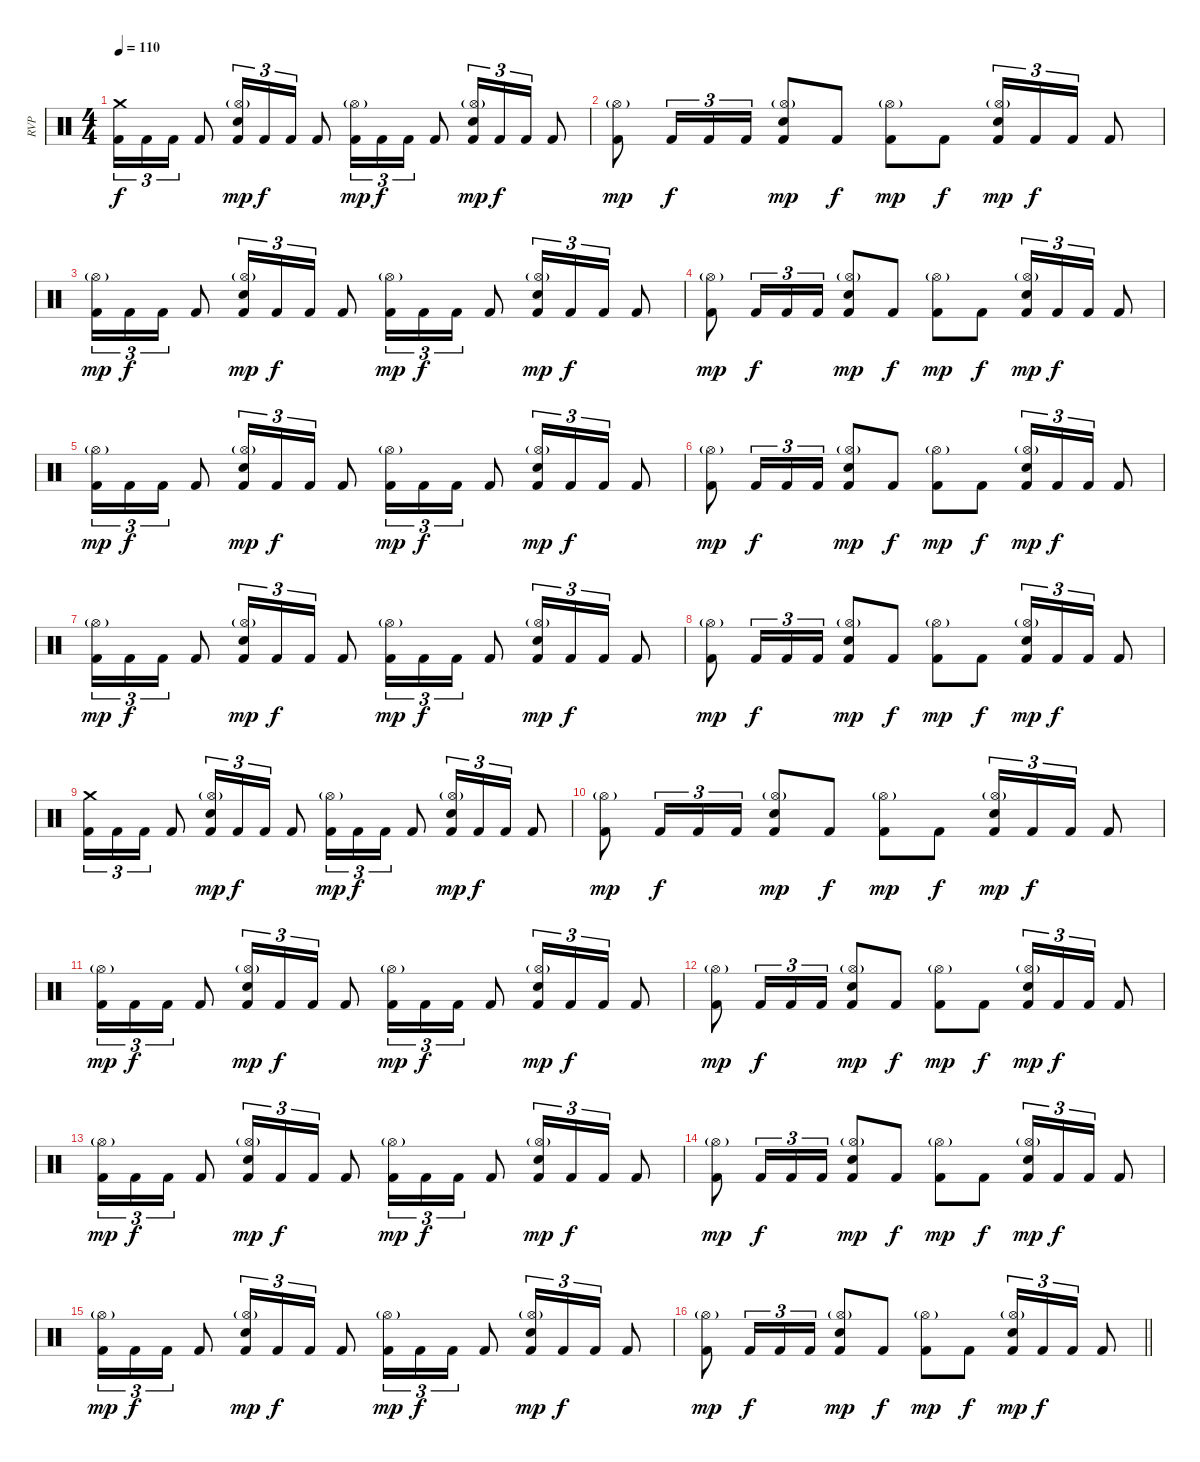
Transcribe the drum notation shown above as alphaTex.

\track ("RVP" "RVP") {instrument percussion}
\staff {score}
\articulation defaults
\ts (4 4)
\tempo 110
\clef neutral
\ks c
("Crash medium (hit)" "Kick (hit) 2").16{tu (3 2) dy f} "Kick (hit) 2".16{tu (3 2)} "Kick (hit) 2".16{tu (3 2)} "Kick (hit) 2".8 ("Hi-Hat (open)"{g} "Electric Snare (hit)" "Kick (hit) 2").16{tu (3 2) dy mp} "Kick (hit) 2".16{tu (3 2) dy f} "Kick (hit) 2".16{tu (3 2)} "Kick (hit) 2".8 ("Hi-Hat (open)"{g} "Kick (hit) 2").16{tu (3 2) dy mp} "Kick (hit) 2".16{tu (3 2) dy f} "Kick (hit) 2".16{tu (3 2)} "Kick (hit) 2".8 ("Hi-Hat (open)"{g} "Electric Snare (hit)" "Kick (hit) 2").16{tu (3 2) dy mp} "Kick (hit) 2".16{tu (3 2) dy f} "Kick (hit) 2".16{tu (3 2)} "Kick (hit) 2".8 |
("Hi-Hat (open)"{g} "Kick (hit) 2").8{dy mp} "Kick (hit) 2".16{tu (3 2) dy f} "Kick (hit) 2".16{tu (3 2)} "Kick (hit) 2".16{tu (3 2)} ("Hi-Hat (open)"{g} "Electric Snare (hit)" "Kick (hit) 2").8{dy mp} "Kick (hit) 2".8{dy f} ("Hi-Hat (open)"{g} "Kick (hit) 2").8{dy mp} "Kick (hit) 2".8{dy f} ("Hi-Hat (open)"{g} "Electric Snare (hit)" "Kick (hit) 2").16{tu (3 2) dy mp} "Kick (hit) 2".16{tu (3 2) dy f} "Kick (hit) 2".16{tu (3 2)} "Kick (hit) 2".8 |
("Hi-Hat (open)"{g} "Kick (hit) 2").16{tu (3 2) dy mp} "Kick (hit) 2".16{tu (3 2) dy f} "Kick (hit) 2".16{tu (3 2)} "Kick (hit) 2".8 ("Hi-Hat (open)"{g} "Electric Snare (hit)" "Kick (hit) 2").16{tu (3 2) dy mp} "Kick (hit) 2".16{tu (3 2) dy f} "Kick (hit) 2".16{tu (3 2)} "Kick (hit) 2".8 ("Hi-Hat (open)"{g} "Kick (hit) 2").16{tu (3 2) dy mp} "Kick (hit) 2".16{tu (3 2) dy f} "Kick (hit) 2".16{tu (3 2)} "Kick (hit) 2".8 ("Hi-Hat (open)"{g} "Electric Snare (hit)" "Kick (hit) 2").16{tu (3 2) dy mp} "Kick (hit) 2".16{tu (3 2) dy f} "Kick (hit) 2".16{tu (3 2)} "Kick (hit) 2".8 |
("Hi-Hat (open)"{g} "Kick (hit) 2").8{dy mp} "Kick (hit) 2".16{tu (3 2) dy f} "Kick (hit) 2".16{tu (3 2)} "Kick (hit) 2".16{tu (3 2)} ("Hi-Hat (open)"{g} "Electric Snare (hit)" "Kick (hit) 2").8{dy mp} "Kick (hit) 2".8{dy f} ("Hi-Hat (open)"{g} "Kick (hit) 2").8{dy mp} "Kick (hit) 2".8{dy f} ("Hi-Hat (open)"{g} "Electric Snare (hit)" "Kick (hit) 2").16{tu (3 2) dy mp} "Kick (hit) 2".16{tu (3 2) dy f} "Kick (hit) 2".16{tu (3 2)} "Kick (hit) 2".8 |
("Hi-Hat (open)"{g} "Kick (hit) 2").16{tu (3 2) dy mp} "Kick (hit) 2".16{tu (3 2) dy f} "Kick (hit) 2".16{tu (3 2)} "Kick (hit) 2".8 ("Hi-Hat (open)"{g} "Electric Snare (hit)" "Kick (hit) 2").16{tu (3 2) dy mp} "Kick (hit) 2".16{tu (3 2) dy f} "Kick (hit) 2".16{tu (3 2)} "Kick (hit) 2".8 ("Hi-Hat (open)"{g} "Kick (hit) 2").16{tu (3 2) dy mp} "Kick (hit) 2".16{tu (3 2) dy f} "Kick (hit) 2".16{tu (3 2)} "Kick (hit) 2".8 ("Hi-Hat (open)"{g} "Electric Snare (hit)" "Kick (hit) 2").16{tu (3 2) dy mp} "Kick (hit) 2".16{tu (3 2) dy f} "Kick (hit) 2".16{tu (3 2)} "Kick (hit) 2".8 |
("Hi-Hat (open)"{g} "Kick (hit) 2").8{dy mp} "Kick (hit) 2".16{tu (3 2) dy f} "Kick (hit) 2".16{tu (3 2)} "Kick (hit) 2".16{tu (3 2)} ("Hi-Hat (open)"{g} "Electric Snare (hit)" "Kick (hit) 2").8{dy mp} "Kick (hit) 2".8{dy f} ("Hi-Hat (open)"{g} "Kick (hit) 2").8{dy mp} "Kick (hit) 2".8{dy f} ("Hi-Hat (open)"{g} "Electric Snare (hit)" "Kick (hit) 2").16{tu (3 2) dy mp} "Kick (hit) 2".16{tu (3 2) dy f} "Kick (hit) 2".16{tu (3 2)} "Kick (hit) 2".8 |
("Hi-Hat (open)"{g} "Kick (hit) 2").16{tu (3 2) dy mp} "Kick (hit) 2".16{tu (3 2) dy f} "Kick (hit) 2".16{tu (3 2)} "Kick (hit) 2".8 ("Hi-Hat (open)"{g} "Electric Snare (hit)" "Kick (hit) 2").16{tu (3 2) dy mp} "Kick (hit) 2".16{tu (3 2) dy f} "Kick (hit) 2".16{tu (3 2)} "Kick (hit) 2".8 ("Hi-Hat (open)"{g} "Kick (hit) 2").16{tu (3 2) dy mp} "Kick (hit) 2".16{tu (3 2) dy f} "Kick (hit) 2".16{tu (3 2)} "Kick (hit) 2".8 ("Hi-Hat (open)"{g} "Electric Snare (hit)" "Kick (hit) 2").16{tu (3 2) dy mp} "Kick (hit) 2".16{tu (3 2) dy f} "Kick (hit) 2".16{tu (3 2)} "Kick (hit) 2".8 |
("Hi-Hat (open)"{g} "Kick (hit) 2").8{dy mp} "Kick (hit) 2".16{tu (3 2) dy f} "Kick (hit) 2".16{tu (3 2)} "Kick (hit) 2".16{tu (3 2)} ("Hi-Hat (open)"{g} "Electric Snare (hit)" "Kick (hit) 2").8{dy mp} "Kick (hit) 2".8{dy f} ("Hi-Hat (open)"{g} "Kick (hit) 2").8{dy mp} "Kick (hit) 2".8{dy f} ("Hi-Hat (open)"{g} "Electric Snare (hit)" "Kick (hit) 2").16{tu (3 2) dy mp} "Kick (hit) 2".16{tu (3 2) dy f} "Kick (hit) 2".16{tu (3 2)} "Kick (hit) 2".8 |
("Crash medium (hit)" "Kick (hit) 2").16{tu (3 2)} "Kick (hit) 2".16{tu (3 2)} "Kick (hit) 2".16{tu (3 2)} "Kick (hit) 2".8 ("Hi-Hat (open)"{g} "Electric Snare (hit)" "Kick (hit) 2").16{tu (3 2) dy mp} "Kick (hit) 2".16{tu (3 2) dy f} "Kick (hit) 2".16{tu (3 2)} "Kick (hit) 2".8 ("Hi-Hat (open)"{g} "Kick (hit) 2").16{tu (3 2) dy mp} "Kick (hit) 2".16{tu (3 2) dy f} "Kick (hit) 2".16{tu (3 2)} "Kick (hit) 2".8 ("Hi-Hat (open)"{g} "Electric Snare (hit)" "Kick (hit) 2").16{tu (3 2) dy mp} "Kick (hit) 2".16{tu (3 2) dy f} "Kick (hit) 2".16{tu (3 2)} "Kick (hit) 2".8 |
("Hi-Hat (open)"{g} "Kick (hit) 2").8{dy mp} "Kick (hit) 2".16{tu (3 2) dy f} "Kick (hit) 2".16{tu (3 2)} "Kick (hit) 2".16{tu (3 2)} ("Hi-Hat (open)"{g} "Electric Snare (hit)" "Kick (hit) 2").8{dy mp} "Kick (hit) 2".8{dy f} ("Hi-Hat (open)"{g} "Kick (hit) 2").8{dy mp} "Kick (hit) 2".8{dy f} ("Hi-Hat (open)"{g} "Electric Snare (hit)" "Kick (hit) 2").16{tu (3 2) dy mp} "Kick (hit) 2".16{tu (3 2) dy f} "Kick (hit) 2".16{tu (3 2)} "Kick (hit) 2".8 |
("Hi-Hat (open)"{g} "Kick (hit) 2").16{tu (3 2) dy mp} "Kick (hit) 2".16{tu (3 2) dy f} "Kick (hit) 2".16{tu (3 2)} "Kick (hit) 2".8 ("Hi-Hat (open)"{g} "Electric Snare (hit)" "Kick (hit) 2").16{tu (3 2) dy mp} "Kick (hit) 2".16{tu (3 2) dy f} "Kick (hit) 2".16{tu (3 2)} "Kick (hit) 2".8 ("Hi-Hat (open)"{g} "Kick (hit) 2").16{tu (3 2) dy mp} "Kick (hit) 2".16{tu (3 2) dy f} "Kick (hit) 2".16{tu (3 2)} "Kick (hit) 2".8 ("Hi-Hat (open)"{g} "Electric Snare (hit)" "Kick (hit) 2").16{tu (3 2) dy mp} "Kick (hit) 2".16{tu (3 2) dy f} "Kick (hit) 2".16{tu (3 2)} "Kick (hit) 2".8 |
("Hi-Hat (open)"{g} "Kick (hit) 2").8{dy mp} "Kick (hit) 2".16{tu (3 2) dy f} "Kick (hit) 2".16{tu (3 2)} "Kick (hit) 2".16{tu (3 2)} ("Hi-Hat (open)"{g} "Electric Snare (hit)" "Kick (hit) 2").8{dy mp} "Kick (hit) 2".8{dy f} ("Hi-Hat (open)"{g} "Kick (hit) 2").8{dy mp} "Kick (hit) 2".8{dy f} ("Hi-Hat (open)"{g} "Electric Snare (hit)" "Kick (hit) 2").16{tu (3 2) dy mp} "Kick (hit) 2".16{tu (3 2) dy f} "Kick (hit) 2".16{tu (3 2)} "Kick (hit) 2".8 |
("Hi-Hat (open)"{g} "Kick (hit) 2").16{tu (3 2) dy mp} "Kick (hit) 2".16{tu (3 2) dy f} "Kick (hit) 2".16{tu (3 2)} "Kick (hit) 2".8 ("Hi-Hat (open)"{g} "Electric Snare (hit)" "Kick (hit) 2").16{tu (3 2) dy mp} "Kick (hit) 2".16{tu (3 2) dy f} "Kick (hit) 2".16{tu (3 2)} "Kick (hit) 2".8 ("Hi-Hat (open)"{g} "Kick (hit) 2").16{tu (3 2) dy mp} "Kick (hit) 2".16{tu (3 2) dy f} "Kick (hit) 2".16{tu (3 2)} "Kick (hit) 2".8 ("Hi-Hat (open)"{g} "Electric Snare (hit)" "Kick (hit) 2").16{tu (3 2) dy mp} "Kick (hit) 2".16{tu (3 2) dy f} "Kick (hit) 2".16{tu (3 2)} "Kick (hit) 2".8 |
("Hi-Hat (open)"{g} "Kick (hit) 2").8{dy mp} "Kick (hit) 2".16{tu (3 2) dy f} "Kick (hit) 2".16{tu (3 2)} "Kick (hit) 2".16{tu (3 2)} ("Hi-Hat (open)"{g} "Electric Snare (hit)" "Kick (hit) 2").8{dy mp} "Kick (hit) 2".8{dy f} ("Hi-Hat (open)"{g} "Kick (hit) 2").8{dy mp} "Kick (hit) 2".8{dy f} ("Hi-Hat (open)"{g} "Electric Snare (hit)" "Kick (hit) 2").16{tu (3 2) dy mp} "Kick (hit) 2".16{tu (3 2) dy f} "Kick (hit) 2".16{tu (3 2)} "Kick (hit) 2".8 |
("Hi-Hat (open)"{g} "Kick (hit) 2").16{tu (3 2) dy mp} "Kick (hit) 2".16{tu (3 2) dy f} "Kick (hit) 2".16{tu (3 2)} "Kick (hit) 2".8 ("Hi-Hat (open)"{g} "Electric Snare (hit)" "Kick (hit) 2").16{tu (3 2) dy mp} "Kick (hit) 2".16{tu (3 2) dy f} "Kick (hit) 2".16{tu (3 2)} "Kick (hit) 2".8 ("Hi-Hat (open)"{g} "Kick (hit) 2").16{tu (3 2) dy mp} "Kick (hit) 2".16{tu (3 2) dy f} "Kick (hit) 2".16{tu (3 2)} "Kick (hit) 2".8 ("Hi-Hat (open)"{g} "Electric Snare (hit)" "Kick (hit) 2").16{tu (3 2) dy mp} "Kick (hit) 2".16{tu (3 2) dy f} "Kick (hit) 2".16{tu (3 2)} "Kick (hit) 2".8 |
\barLineRight lightlight
("Hi-Hat (open)"{g} "Kick (hit) 2").8{dy mp} "Kick (hit) 2".16{tu (3 2) dy f} "Kick (hit) 2".16{tu (3 2)} "Kick (hit) 2".16{tu (3 2)} ("Hi-Hat (open)"{g} "Electric Snare (hit)" "Kick (hit) 2").8{dy mp} "Kick (hit) 2".8{dy f} ("Hi-Hat (open)"{g} "Kick (hit) 2").8{dy mp} "Kick (hit) 2".8{dy f} ("Hi-Hat (open)"{g} "Electric Snare (hit)" "Kick (hit) 2").16{tu (3 2) dy mp} "Kick (hit) 2".16{tu (3 2) dy f} "Kick (hit) 2".16{tu (3 2)} "Kick (hit) 2".8
